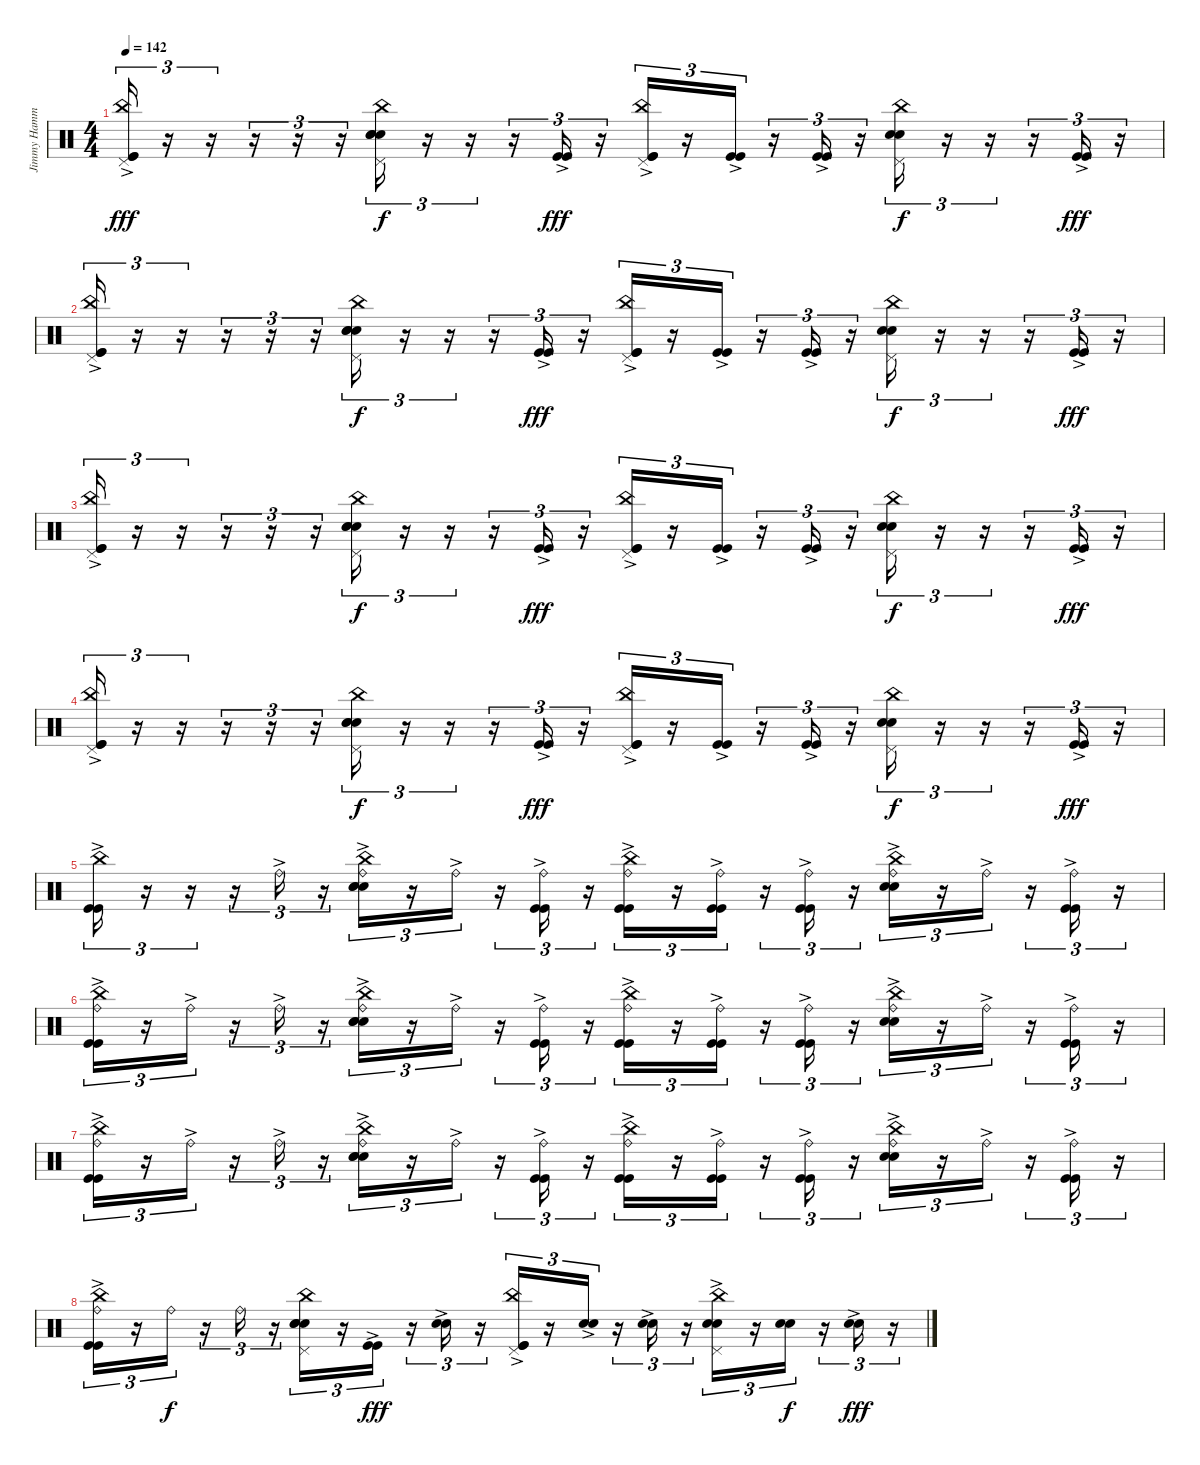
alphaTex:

\track ("Jimmy Hammer" "Jimmy Hamm") {instrument percussion}
\staff {score}
\articulation defaults
\ts (4 4)
\tempo 142
\clef neutral
\ks c
("Kick (hit)"{ac} "China (hit)" "Pedal Hi-Hat (hit)" "Kick (hit)"{ac}).16{tu (3 2) dy fff} r.16{tu (3 2)} r.16{tu (3 2)} r.16{tu (3 2)} r.16{tu (3 2)} r.16{tu (3 2)} ("China (hit)" "Electric Snare (hit)" "Electric Snare (hit)" "Electric Snare (hit)" "Pedal Hi-Hat (hit)").16{tu (3 2) dy f} r.16{tu (3 2)} r.16{tu (3 2)} r.16{tu (3 2)} ("Kick (hit)"{ac} "Kick (hit)"{ac}).16{tu (3 2) dy fff} r.16{tu (3 2)} ("China (hit)" "Kick (hit)"{ac} "Kick (hit)"{ac} "Pedal Hi-Hat (hit)").16{tu (3 2)} r.16{tu (3 2)} ("Kick (hit)"{ac} "Kick (hit)"{ac}).16{tu (3 2)} r.16{tu (3 2)} ("Kick (hit)"{ac} "Kick (hit)"{ac}).16{tu (3 2)} r.16{tu (3 2)} ("Electric Snare (hit)" "Electric Snare (hit)" "China (hit)" "Pedal Hi-Hat (hit)").16{tu (3 2) dy f} r.16{tu (3 2)} r.16{tu (3 2)} r.16{tu (3 2)} ("Kick (hit)"{ac} "Kick (hit)"{ac}).16{tu (3 2) dy fff} r.16{tu (3 2)} |
("Kick (hit)"{ac} "China (hit)" "Pedal Hi-Hat (hit)" "Kick (hit)"{ac}).16{tu (3 2)} r.16{tu (3 2)} r.16{tu (3 2)} r.16{tu (3 2)} r.16{tu (3 2)} r.16{tu (3 2)} ("China (hit)" "Electric Snare (hit)" "Electric Snare (hit)" "Electric Snare (hit)" "Pedal Hi-Hat (hit)").16{tu (3 2) dy f} r.16{tu (3 2)} r.16{tu (3 2)} r.16{tu (3 2)} ("Kick (hit)"{ac} "Kick (hit)"{ac}).16{tu (3 2) dy fff} r.16{tu (3 2)} ("China (hit)" "Kick (hit)"{ac} "Kick (hit)"{ac} "Pedal Hi-Hat (hit)").16{tu (3 2)} r.16{tu (3 2)} ("Kick (hit)"{ac} "Kick (hit)"{ac}).16{tu (3 2)} r.16{tu (3 2)} ("Kick (hit)"{ac} "Kick (hit)"{ac}).16{tu (3 2)} r.16{tu (3 2)} ("Electric Snare (hit)" "Electric Snare (hit)" "China (hit)" "Pedal Hi-Hat (hit)").16{tu (3 2) dy f} r.16{tu (3 2)} r.16{tu (3 2)} r.16{tu (3 2)} ("Kick (hit)"{ac} "Kick (hit)"{ac}).16{tu (3 2) dy fff} r.16{tu (3 2)} |
("Kick (hit)"{ac} "China (hit)" "Pedal Hi-Hat (hit)" "Kick (hit)"{ac}).16{tu (3 2)} r.16{tu (3 2)} r.16{tu (3 2)} r.16{tu (3 2)} r.16{tu (3 2)} r.16{tu (3 2)} ("China (hit)" "Electric Snare (hit)" "Electric Snare (hit)" "Electric Snare (hit)" "Pedal Hi-Hat (hit)").16{tu (3 2) dy f} r.16{tu (3 2)} r.16{tu (3 2)} r.16{tu (3 2)} ("Kick (hit)"{ac} "Kick (hit)"{ac}).16{tu (3 2) dy fff} r.16{tu (3 2)} ("China (hit)" "Kick (hit)"{ac} "Kick (hit)"{ac} "Pedal Hi-Hat (hit)").16{tu (3 2)} r.16{tu (3 2)} ("Kick (hit)"{ac} "Kick (hit)"{ac}).16{tu (3 2)} r.16{tu (3 2)} ("Kick (hit)"{ac} "Kick (hit)"{ac}).16{tu (3 2)} r.16{tu (3 2)} ("Electric Snare (hit)" "Electric Snare (hit)" "China (hit)" "Pedal Hi-Hat (hit)").16{tu (3 2) dy f} r.16{tu (3 2)} r.16{tu (3 2)} r.16{tu (3 2)} ("Kick (hit)"{ac} "Kick (hit)"{ac}).16{tu (3 2) dy fff} r.16{tu (3 2)} |
("Kick (hit)"{ac} "China (hit)" "Pedal Hi-Hat (hit)" "Kick (hit)"{ac}).16{tu (3 2)} r.16{tu (3 2)} r.16{tu (3 2)} r.16{tu (3 2)} r.16{tu (3 2)} r.16{tu (3 2)} ("China (hit)" "Electric Snare (hit)" "Electric Snare (hit)" "Electric Snare (hit)" "Pedal Hi-Hat (hit)").16{tu (3 2) dy f} r.16{tu (3 2)} r.16{tu (3 2)} r.16{tu (3 2)} ("Kick (hit)"{ac} "Kick (hit)"{ac}).16{tu (3 2) dy fff} r.16{tu (3 2)} ("China (hit)" "Kick (hit)"{ac} "Kick (hit)"{ac} "Pedal Hi-Hat (hit)").16{tu (3 2)} r.16{tu (3 2)} ("Kick (hit)"{ac} "Kick (hit)"{ac}).16{tu (3 2)} r.16{tu (3 2)} ("Kick (hit)"{ac} "Kick (hit)"{ac}).16{tu (3 2)} r.16{tu (3 2)} ("Electric Snare (hit)" "Electric Snare (hit)" "China (hit)" "Pedal Hi-Hat (hit)").16{tu (3 2) dy f} r.16{tu (3 2)} r.16{tu (3 2)} r.16{tu (3 2)} ("Kick (hit)"{ac} "Kick (hit)"{ac}).16{tu (3 2) dy fff} r.16{tu (3 2)} |
("Kick (hit)"{ac} "China (hit)" "Kick (hit)"{ac}).16{tu (3 2)} r.16{tu (3 2)} r.16{tu (3 2)} r.16{tu (3 2)} "Ride (bell)"{ac}.16{tu (3 2)} r.16{tu (3 2)} ("China (hit)" "Electric Snare (hit)" "Electric Snare (hit)" "Electric Snare (hit)" "Ride (bell)"{ac}).16{tu (3 2)} r.16{tu (3 2)} "Ride (bell)"{ac}.16{tu (3 2)} r.16{tu (3 2)} ("Kick (hit)"{ac} "Kick (hit)"{ac} "Ride (bell)"{ac}).16{tu (3 2)} r.16{tu (3 2)} ("China (hit)" "Kick (hit)"{ac} "Kick (hit)"{ac} "Ride (bell)"{ac}).16{tu (3 2)} r.16{tu (3 2)} ("Kick (hit)"{ac} "Kick (hit)"{ac} "Ride (bell)"{ac}).16{tu (3 2)} r.16{tu (3 2)} ("Kick (hit)"{ac} "Kick (hit)"{ac} "Ride (bell)"{ac}).16{tu (3 2)} r.16{tu (3 2)} ("Electric Snare (hit)" "Electric Snare (hit)" "China (hit)" "Ride (bell)"{ac}).16{tu (3 2)} r.16{tu (3 2)} "Ride (bell)"{ac}.16{tu (3 2)} r.16{tu (3 2)} ("Kick (hit)"{ac} "Kick (hit)"{ac} "Ride (bell)"{ac}).16{tu (3 2)} r.16{tu (3 2)} |
("Kick (hit)"{ac} "China (hit)" "Ride (bell)"{ac} "Kick (hit)"{ac}).16{tu (3 2)} r.16{tu (3 2)} "Ride (bell)"{ac}.16{tu (3 2)} r.16{tu (3 2)} "Ride (bell)"{ac}.16{tu (3 2)} r.16{tu (3 2)} ("China (hit)" "Electric Snare (hit)" "Electric Snare (hit)" "Electric Snare (hit)" "Ride (bell)"{ac}).16{tu (3 2)} r.16{tu (3 2)} "Ride (bell)"{ac}.16{tu (3 2)} r.16{tu (3 2)} ("Kick (hit)"{ac} "Kick (hit)"{ac} "Ride (bell)"{ac}).16{tu (3 2)} r.16{tu (3 2)} ("China (hit)" "Kick (hit)"{ac} "Kick (hit)"{ac} "Ride (bell)"{ac}).16{tu (3 2)} r.16{tu (3 2)} ("Kick (hit)"{ac} "Kick (hit)"{ac} "Ride (bell)"{ac}).16{tu (3 2)} r.16{tu (3 2)} ("Kick (hit)"{ac} "Kick (hit)"{ac} "Ride (bell)"{ac}).16{tu (3 2)} r.16{tu (3 2)} ("Electric Snare (hit)" "Electric Snare (hit)" "China (hit)" "Ride (bell)"{ac}).16{tu (3 2)} r.16{tu (3 2)} "Ride (bell)"{ac}.16{tu (3 2)} r.16{tu (3 2)} ("Kick (hit)"{ac} "Kick (hit)"{ac} "Ride (bell)"{ac}).16{tu (3 2)} r.16{tu (3 2)} |
("Kick (hit)"{ac} "China (hit)" "Ride (bell)"{ac} "Kick (hit)"{ac}).16{tu (3 2)} r.16{tu (3 2)} "Ride (bell)"{ac}.16{tu (3 2)} r.16{tu (3 2)} "Ride (bell)"{ac}.16{tu (3 2)} r.16{tu (3 2)} ("China (hit)" "Electric Snare (hit)" "Electric Snare (hit)" "Electric Snare (hit)" "Ride (bell)"{ac}).16{tu (3 2)} r.16{tu (3 2)} "Ride (bell)"{ac}.16{tu (3 2)} r.16{tu (3 2)} ("Kick (hit)"{ac} "Kick (hit)"{ac} "Ride (bell)"{ac}).16{tu (3 2)} r.16{tu (3 2)} ("China (hit)" "Kick (hit)"{ac} "Kick (hit)"{ac} "Ride (bell)"{ac}).16{tu (3 2)} r.16{tu (3 2)} ("Kick (hit)"{ac} "Kick (hit)"{ac} "Ride (bell)"{ac}).16{tu (3 2)} r.16{tu (3 2)} ("Kick (hit)"{ac} "Kick (hit)"{ac} "Ride (bell)"{ac}).16{tu (3 2)} r.16{tu (3 2)} ("Electric Snare (hit)" "Electric Snare (hit)" "China (hit)" "Ride (bell)"{ac}).16{tu (3 2)} r.16{tu (3 2)} "Ride (bell)"{ac}.16{tu (3 2)} r.16{tu (3 2)} ("Kick (hit)"{ac} "Kick (hit)"{ac} "Ride (bell)"{ac}).16{tu (3 2)} r.16{tu (3 2)} |
("Kick (hit)"{ac} "China (hit)" "Ride (bell)" "Kick (hit)"{ac}).16{tu (3 2)} r.16{tu (3 2)} "Ride (bell)".16{tu (3 2) dy f} r.16{tu (3 2)} "Ride (bell)".16{tu (3 2)} r.16{tu (3 2)} ("China (hit)" "Electric Snare (hit)" "Electric Snare (hit)" "Electric Snare (hit)" "Pedal Hi-Hat (hit)").16{tu (3 2)} r.16{tu (3 2)} ("Kick (hit)"{ac} "Kick (hit)"{ac}).16{tu (3 2) dy fff} r.16{tu (3 2)} ("Electric Snare (hit)"{ac} "Electric Snare (hit)"{ac}).16{tu (3 2)} r.16{tu (3 2)} ("China (hit)" "Kick (hit)"{ac} "Kick (hit)"{ac} "Pedal Hi-Hat (hit)").16{tu (3 2)} r.16{tu (3 2)} ("Electric Snare (hit)"{ac} "Electric Snare (hit)"{ac}).16{tu (3 2)} r.16{tu (3 2)} ("Electric Snare (hit)"{ac} "Electric Snare (hit)"{ac}).16{tu (3 2)} r.16{tu (3 2)} ("Electric Snare (hit)"{ac} "Electric Snare (hit)" "China (hit)" "Pedal Hi-Hat (hit)").16{tu (3 2)} r.16{tu (3 2)} ("Electric Snare (hit)" "Electric Snare (hit)").16{tu (3 2) dy f} r.16{tu (3 2)} ("Electric Snare (hit)"{ac} "Electric Snare (hit)"{ac}).16{tu (3 2) dy fff} r.16{tu (3 2)}
